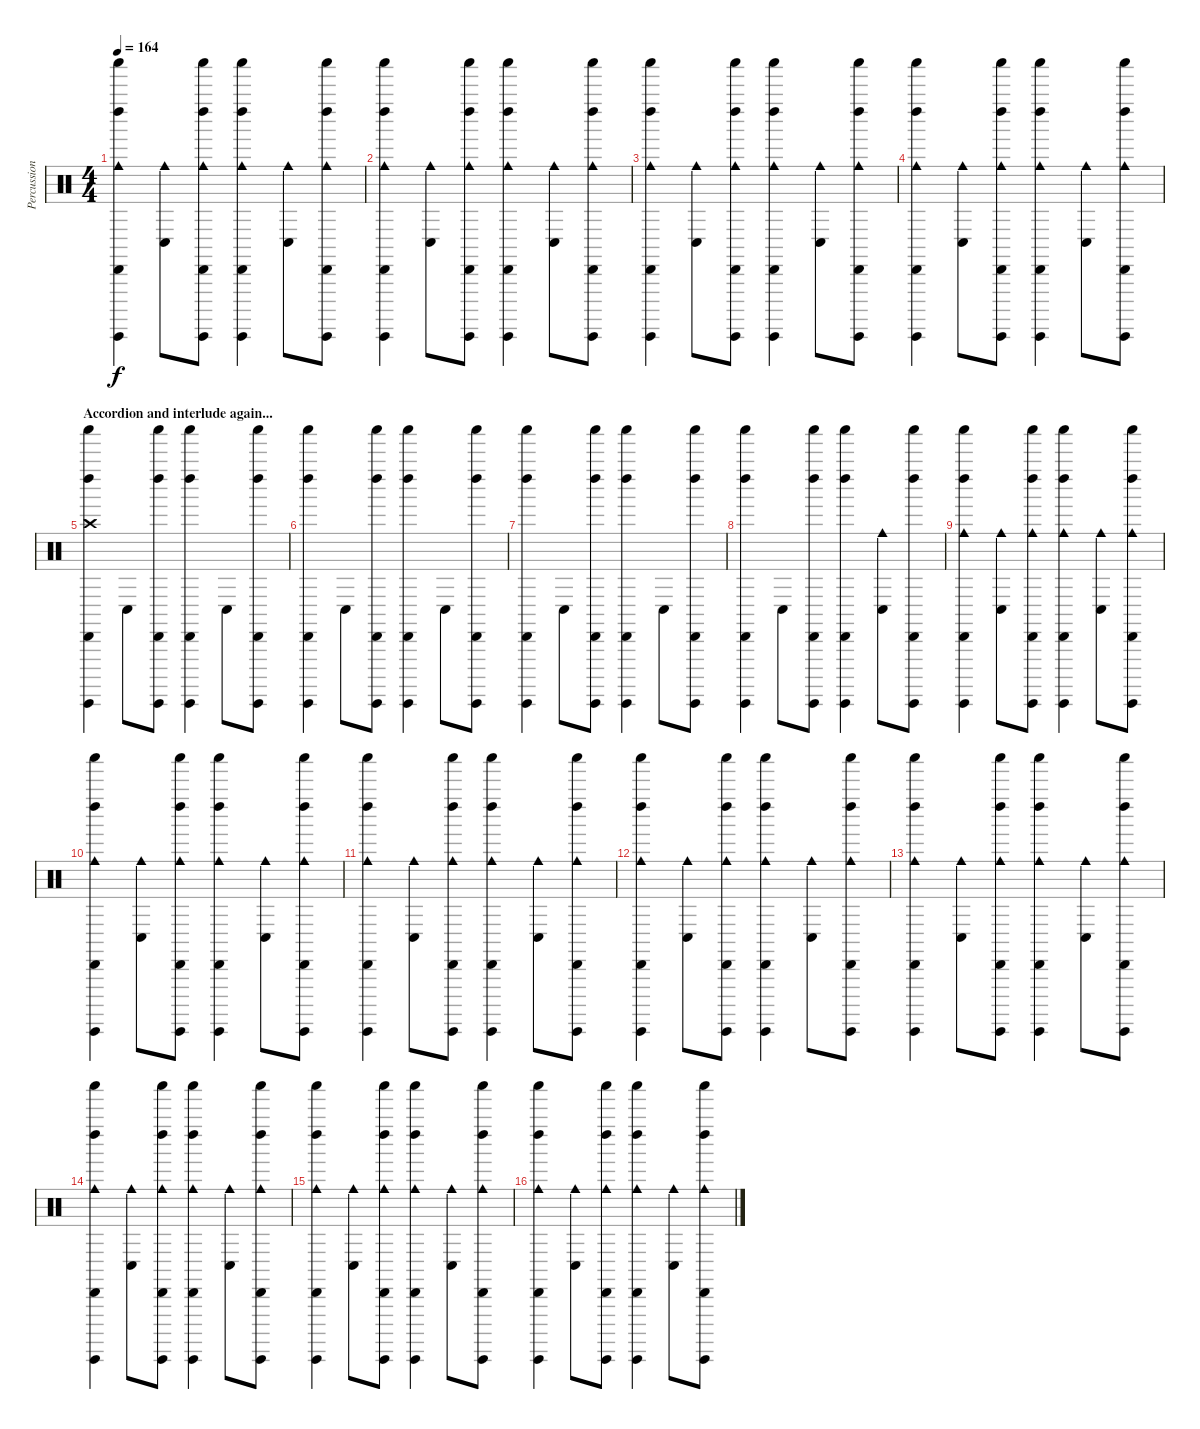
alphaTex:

\track ("Percussion" "Percussion") {instrument percussion}
\staff {score}
\articulation defaults
\ts (4 4)
\tempo 164
\clef neutral
\ks c
("Shaker (hit)" "Guiro (hit)" "Left Maraca (hit)" "Cabasa (hit)" "Cowbell medium (hit)").4{dy f} ("Conga low (hit)" "Cowbell medium (hit)").8 ("Shaker (hit)" "Guiro (hit)" "Left Maraca (hit)" "Cabasa (hit)" "Cowbell medium (hit)").8 ("Shaker (hit)" "Guiro (hit)" "Left Maraca (hit)" "Cabasa (hit)" "Cowbell medium (hit)").4 ("Conga low (hit)" "Cowbell medium (hit)").8 ("Shaker (hit)" "Guiro (hit)" "Left Maraca (hit)" "Cabasa (hit)" "Cowbell medium (hit)").8 |
("Shaker (hit)" "Guiro (hit)" "Left Maraca (hit)" "Cabasa (hit)" "Cowbell medium (hit)").4 ("Conga low (hit)" "Cowbell medium (hit)").8 ("Shaker (hit)" "Guiro (hit)" "Left Maraca (hit)" "Cabasa (hit)" "Cowbell medium (hit)").8 ("Shaker (hit)" "Guiro (hit)" "Left Maraca (hit)" "Cabasa (hit)" "Cowbell medium (hit)").4 ("Conga low (hit)" "Cowbell medium (hit)").8 ("Shaker (hit)" "Guiro (hit)" "Left Maraca (hit)" "Cabasa (hit)" "Cowbell medium (hit)").8 |
("Shaker (hit)" "Guiro (hit)" "Left Maraca (hit)" "Cabasa (hit)" "Cowbell medium (hit)").4 ("Conga low (hit)" "Cowbell medium (hit)").8 ("Shaker (hit)" "Guiro (hit)" "Left Maraca (hit)" "Cabasa (hit)" "Cowbell medium (hit)").8 ("Shaker (hit)" "Guiro (hit)" "Left Maraca (hit)" "Cabasa (hit)" "Cowbell medium (hit)").4 ("Conga low (hit)" "Cowbell medium (hit)").8 ("Shaker (hit)" "Guiro (hit)" "Left Maraca (hit)" "Cabasa (hit)" "Cowbell medium (hit)").8 |
("Shaker (hit)" "Guiro (hit)" "Left Maraca (hit)" "Cabasa (hit)" "Cowbell medium (hit)").4 ("Conga low (hit)" "Cowbell medium (hit)").8 ("Shaker (hit)" "Guiro (hit)" "Left Maraca (hit)" "Cabasa (hit)" "Cowbell medium (hit)").8 ("Shaker (hit)" "Guiro (hit)" "Left Maraca (hit)" "Cabasa (hit)" "Cowbell medium (hit)").4 ("Conga low (hit)" "Cowbell medium (hit)").8 ("Shaker (hit)" "Guiro (hit)" "Left Maraca (hit)" "Cabasa (hit)" "Cowbell medium (hit)").8 |
\section ("" "Accordion and interlude again...")
("Shaker (hit)" "Guiro (hit)" "Left Maraca (hit)" "Cabasa (hit)" "Crash high (hit)").4 "Conga low (hit)".8 ("Shaker (hit)" "Guiro (hit)" "Left Maraca (hit)" "Cabasa (hit)").8 ("Shaker (hit)" "Guiro (hit)" "Left Maraca (hit)" "Cabasa (hit)").4 "Conga low (hit)".8 ("Shaker (hit)" "Guiro (hit)" "Left Maraca (hit)" "Cabasa (hit)").8 |
("Shaker (hit)" "Guiro (hit)" "Left Maraca (hit)" "Cabasa (hit)").4 "Conga low (hit)".8 ("Shaker (hit)" "Guiro (hit)" "Left Maraca (hit)" "Cabasa (hit)").8 ("Shaker (hit)" "Guiro (hit)" "Left Maraca (hit)" "Cabasa (hit)").4 "Conga low (hit)".8 ("Shaker (hit)" "Guiro (hit)" "Left Maraca (hit)" "Cabasa (hit)").8 |
("Shaker (hit)" "Guiro (hit)" "Left Maraca (hit)" "Cabasa (hit)").4 "Conga low (hit)".8 ("Shaker (hit)" "Guiro (hit)" "Left Maraca (hit)" "Cabasa (hit)").8 ("Shaker (hit)" "Guiro (hit)" "Left Maraca (hit)" "Cabasa (hit)").4 "Conga low (hit)".8 ("Shaker (hit)" "Guiro (hit)" "Left Maraca (hit)" "Cabasa (hit)").8 |
("Shaker (hit)" "Guiro (hit)" "Left Maraca (hit)" "Cabasa (hit)").4 "Conga low (hit)".8 ("Shaker (hit)" "Guiro (hit)" "Left Maraca (hit)" "Cabasa (hit)").8 ("Shaker (hit)" "Guiro (hit)" "Left Maraca (hit)" "Cabasa (hit)").4 ("Conga low (hit)" "Cowbell medium (hit)").8 ("Shaker (hit)" "Guiro (hit)" "Left Maraca (hit)" "Cabasa (hit)").8 |
("Shaker (hit)" "Guiro (hit)" "Left Maraca (hit)" "Cabasa (hit)" "Cowbell medium (hit)").4 ("Conga low (hit)" "Cowbell medium (hit)").8 ("Shaker (hit)" "Guiro (hit)" "Left Maraca (hit)" "Cabasa (hit)" "Cowbell medium (hit)").8 ("Shaker (hit)" "Guiro (hit)" "Left Maraca (hit)" "Cabasa (hit)" "Cowbell medium (hit)").4 ("Conga low (hit)" "Cowbell medium (hit)").8 ("Shaker (hit)" "Guiro (hit)" "Left Maraca (hit)" "Cabasa (hit)" "Cowbell medium (hit)").8 |
("Shaker (hit)" "Guiro (hit)" "Left Maraca (hit)" "Cabasa (hit)" "Cowbell medium (hit)").4 ("Conga low (hit)" "Cowbell medium (hit)").8 ("Shaker (hit)" "Guiro (hit)" "Left Maraca (hit)" "Cabasa (hit)" "Cowbell medium (hit)").8 ("Shaker (hit)" "Guiro (hit)" "Left Maraca (hit)" "Cabasa (hit)" "Cowbell medium (hit)").4 ("Conga low (hit)" "Cowbell medium (hit)").8 ("Shaker (hit)" "Guiro (hit)" "Left Maraca (hit)" "Cabasa (hit)" "Cowbell medium (hit)").8 |
("Shaker (hit)" "Guiro (hit)" "Left Maraca (hit)" "Cabasa (hit)" "Cowbell medium (hit)").4 ("Conga low (hit)" "Cowbell medium (hit)").8 ("Shaker (hit)" "Guiro (hit)" "Left Maraca (hit)" "Cabasa (hit)" "Cowbell medium (hit)").8 ("Shaker (hit)" "Guiro (hit)" "Left Maraca (hit)" "Cabasa (hit)" "Cowbell medium (hit)").4 ("Conga low (hit)" "Cowbell medium (hit)").8 ("Shaker (hit)" "Guiro (hit)" "Left Maraca (hit)" "Cabasa (hit)" "Cowbell medium (hit)").8 |
("Shaker (hit)" "Guiro (hit)" "Left Maraca (hit)" "Cabasa (hit)" "Cowbell medium (hit)").4 ("Conga low (hit)" "Cowbell medium (hit)").8 ("Shaker (hit)" "Guiro (hit)" "Left Maraca (hit)" "Cabasa (hit)" "Cowbell medium (hit)").8 ("Shaker (hit)" "Guiro (hit)" "Left Maraca (hit)" "Cabasa (hit)" "Cowbell medium (hit)").4 ("Conga low (hit)" "Cowbell medium (hit)").8 ("Shaker (hit)" "Guiro (hit)" "Left Maraca (hit)" "Cabasa (hit)" "Cowbell medium (hit)").8 |
("Shaker (hit)" "Guiro (hit)" "Left Maraca (hit)" "Cabasa (hit)" "Cowbell medium (hit)").4 ("Conga low (hit)" "Cowbell medium (hit)").8 ("Shaker (hit)" "Guiro (hit)" "Left Maraca (hit)" "Cabasa (hit)" "Cowbell medium (hit)").8 ("Shaker (hit)" "Guiro (hit)" "Left Maraca (hit)" "Cabasa (hit)" "Cowbell medium (hit)").4 ("Conga low (hit)" "Cowbell medium (hit)").8 ("Shaker (hit)" "Guiro (hit)" "Left Maraca (hit)" "Cabasa (hit)" "Cowbell medium (hit)").8 |
("Shaker (hit)" "Guiro (hit)" "Left Maraca (hit)" "Cabasa (hit)" "Cowbell medium (hit)").4 ("Conga low (hit)" "Cowbell medium (hit)").8 ("Shaker (hit)" "Guiro (hit)" "Left Maraca (hit)" "Cabasa (hit)" "Cowbell medium (hit)").8 ("Shaker (hit)" "Guiro (hit)" "Left Maraca (hit)" "Cabasa (hit)" "Cowbell medium (hit)").4 ("Conga low (hit)" "Cowbell medium (hit)").8 ("Shaker (hit)" "Guiro (hit)" "Left Maraca (hit)" "Cabasa (hit)" "Cowbell medium (hit)").8 |
("Shaker (hit)" "Guiro (hit)" "Left Maraca (hit)" "Cabasa (hit)" "Cowbell medium (hit)").4 ("Conga low (hit)" "Cowbell medium (hit)").8 ("Shaker (hit)" "Guiro (hit)" "Left Maraca (hit)" "Cabasa (hit)" "Cowbell medium (hit)").8 ("Shaker (hit)" "Guiro (hit)" "Left Maraca (hit)" "Cabasa (hit)" "Cowbell medium (hit)").4 ("Conga low (hit)" "Cowbell medium (hit)").8 ("Shaker (hit)" "Guiro (hit)" "Left Maraca (hit)" "Cabasa (hit)" "Cowbell medium (hit)").8 |
("Shaker (hit)" "Guiro (hit)" "Left Maraca (hit)" "Cabasa (hit)" "Cowbell medium (hit)").4 ("Conga low (hit)" "Cowbell medium (hit)").8 ("Shaker (hit)" "Guiro (hit)" "Left Maraca (hit)" "Cabasa (hit)" "Cowbell medium (hit)").8 ("Shaker (hit)" "Guiro (hit)" "Left Maraca (hit)" "Cabasa (hit)" "Cowbell medium (hit)").4 ("Conga low (hit)" "Cowbell medium (hit)").8 ("Shaker (hit)" "Guiro (hit)" "Left Maraca (hit)" "Cabasa (hit)" "Cowbell medium (hit)").8
